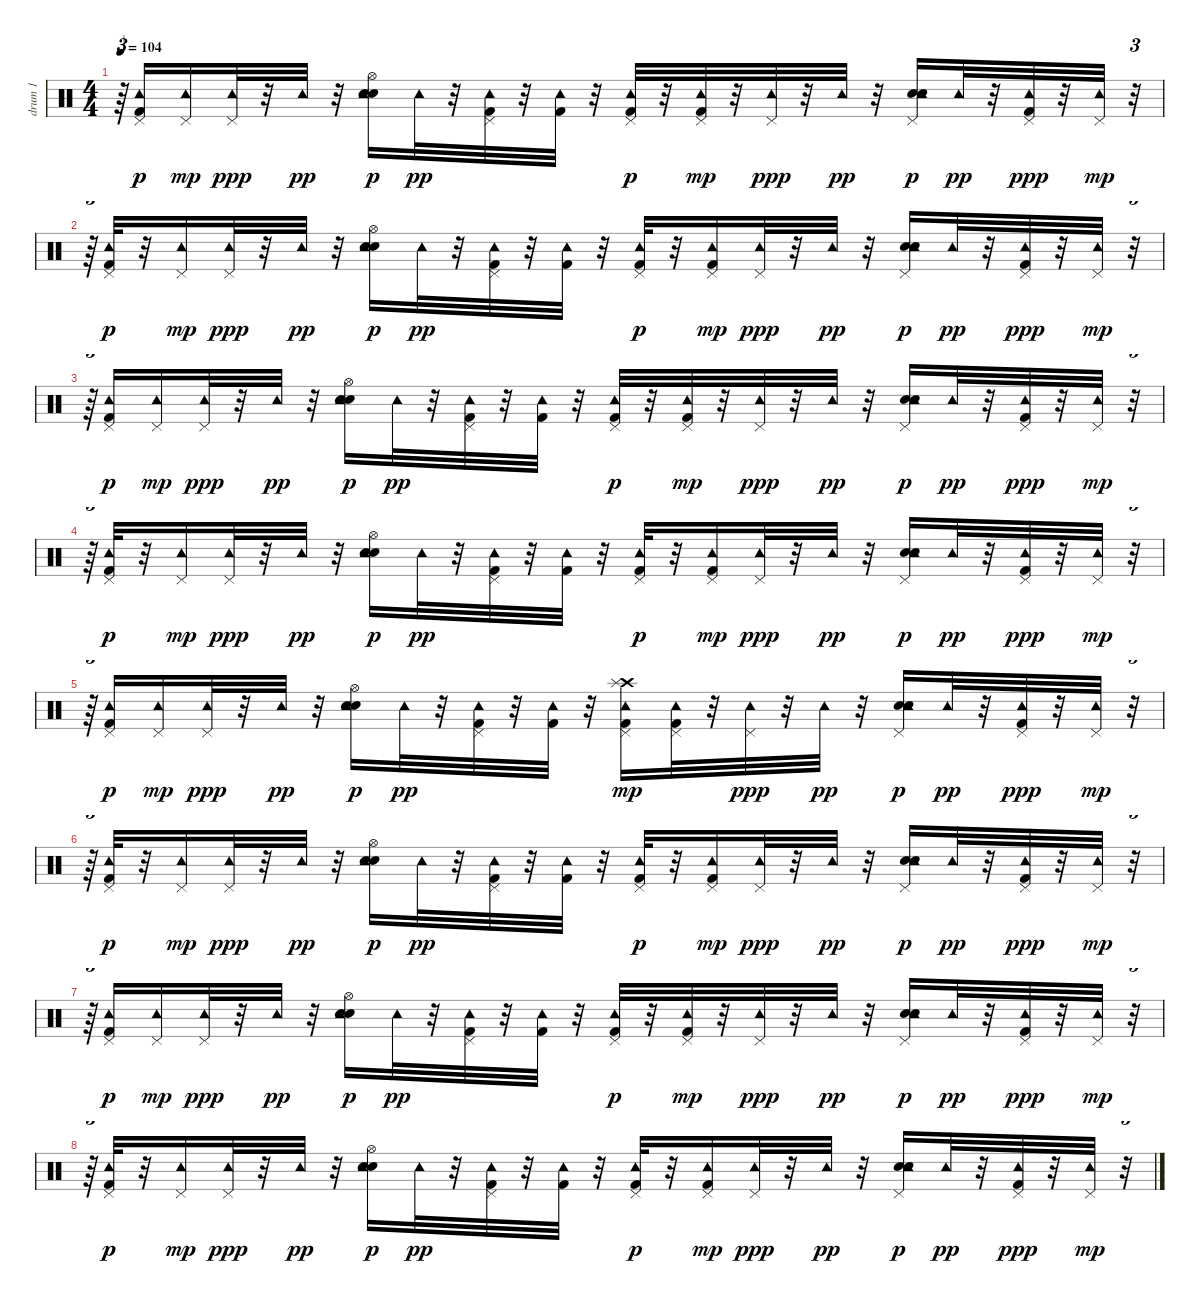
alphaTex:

\track ("drum 1" "drum 1") {instrument percussion}
\staff {score}
\articulation defaults
\ts (4 4)
\tempo 104
\clef neutral
\ks c
r.64{tu (3 2) dy mp} ("Kick (hit) 2" "Pedal Hi-Hat (hit)" "Tambourine (hit)").16{dy p} ("Tambourine (hit)" "Pedal Hi-Hat (hit)").16{dy mp} ("Pedal Hi-Hat (hit)" "Tambourine (hit)").32{dy ppp} r.32 "Tambourine (hit)".32{dy pp} r.32 ("Hand Clap (hit)" "Electric Snare (hit)" "Hi-Hat (open)" "Tambourine (hit)").16{dy p} "Tambourine (hit)".32{dy pp} r.32 ("Kick (hit) 2" "Pedal Hi-Hat (hit)" "Tambourine (hit)").32 r.32 ("Kick (hit) 2" "Tambourine (hit)").32 r.32 ("Kick (hit) 2" "Pedal Hi-Hat (hit)" "Tambourine (hit)").32{dy p} r.32 ("Kick (hit) 2" "Tambourine (hit)" "Pedal Hi-Hat (hit)").32{dy mp} r.32 ("Pedal Hi-Hat (hit)" "Tambourine (hit)").32{dy ppp} r.32 "Tambourine (hit)".32{dy pp} r.32 ("Hand Clap (hit)" "Electric Snare (hit)" "Pedal Hi-Hat (hit)" "Tambourine (hit)").16{dy p} "Tambourine (hit)".32{dy pp} r.32 ("Kick (hit) 2" "Pedal Hi-Hat (hit)" "Tambourine (hit)").32{dy ppp} r.32 ("Tambourine (hit)" "Pedal Hi-Hat (hit)").32{dy mp} r.32{tu (3 2)} |
r.64{tu (3 2)} ("Kick (hit) 2" "Pedal Hi-Hat (hit)" "Tambourine (hit)").32{dy p} r.32 ("Tambourine (hit)" "Pedal Hi-Hat (hit)").16{dy mp} ("Pedal Hi-Hat (hit)" "Tambourine (hit)").32{dy ppp} r.32 "Tambourine (hit)".32{dy pp} r.32 ("Hand Clap (hit)" "Electric Snare (hit)" "Hi-Hat (open)" "Tambourine (hit)").16{dy p} "Tambourine (hit)".32{dy pp} r.32 ("Kick (hit) 2" "Pedal Hi-Hat (hit)" "Tambourine (hit)").32 r.32 ("Kick (hit) 2" "Tambourine (hit)").32 r.32 ("Kick (hit) 2" "Pedal Hi-Hat (hit)" "Tambourine (hit)").32{dy p} r.32 ("Kick (hit) 2" "Tambourine (hit)" "Pedal Hi-Hat (hit)").16{dy mp} ("Pedal Hi-Hat (hit)" "Tambourine (hit)").32{dy ppp} r.32 "Tambourine (hit)".32{dy pp} r.32 ("Hand Clap (hit)" "Electric Snare (hit)" "Pedal Hi-Hat (hit)" "Tambourine (hit)").16{dy p} "Tambourine (hit)".32{dy pp} r.32 ("Kick (hit) 2" "Pedal Hi-Hat (hit)" "Tambourine (hit)").32{dy ppp} r.32 ("Tambourine (hit)" "Pedal Hi-Hat (hit)").32{dy mp} r.32{tu (3 2)} |
r.64{tu (3 2)} ("Kick (hit) 2" "Pedal Hi-Hat (hit)" "Tambourine (hit)").16{dy p} ("Tambourine (hit)" "Pedal Hi-Hat (hit)").16{dy mp} ("Pedal Hi-Hat (hit)" "Tambourine (hit)").32{dy ppp} r.32 "Tambourine (hit)".32{dy pp} r.32 ("Hand Clap (hit)" "Electric Snare (hit)" "Hi-Hat (open)" "Tambourine (hit)").16{dy p} "Tambourine (hit)".32{dy pp} r.32 ("Kick (hit) 2" "Pedal Hi-Hat (hit)" "Tambourine (hit)").32 r.32 ("Kick (hit) 2" "Tambourine (hit)").32 r.32 ("Kick (hit) 2" "Pedal Hi-Hat (hit)" "Tambourine (hit)").32{dy p} r.32 ("Kick (hit) 2" "Tambourine (hit)" "Pedal Hi-Hat (hit)").32{dy mp} r.32 ("Pedal Hi-Hat (hit)" "Tambourine (hit)").32{dy ppp} r.32 "Tambourine (hit)".32{dy pp} r.32 ("Hand Clap (hit)" "Electric Snare (hit)" "Pedal Hi-Hat (hit)" "Tambourine (hit)").16{dy p} "Tambourine (hit)".32{dy pp} r.32 ("Kick (hit) 2" "Pedal Hi-Hat (hit)" "Tambourine (hit)").32{dy ppp} r.32 ("Tambourine (hit)" "Pedal Hi-Hat (hit)").32{dy mp} r.32{tu (3 2)} |
r.64{tu (3 2)} ("Kick (hit) 2" "Pedal Hi-Hat (hit)" "Tambourine (hit)").32{dy p} r.32 ("Tambourine (hit)" "Pedal Hi-Hat (hit)").16{dy mp} ("Pedal Hi-Hat (hit)" "Tambourine (hit)").32{dy ppp} r.32 "Tambourine (hit)".32{dy pp} r.32 ("Hand Clap (hit)" "Electric Snare (hit)" "Hi-Hat (open)" "Tambourine (hit)").16{dy p} "Tambourine (hit)".32{dy pp} r.32 ("Kick (hit) 2" "Pedal Hi-Hat (hit)" "Tambourine (hit)").32 r.32 ("Kick (hit) 2" "Tambourine (hit)").32 r.32 ("Kick (hit) 2" "Pedal Hi-Hat (hit)" "Tambourine (hit)").32{dy p} r.32 ("Kick (hit) 2" "Tambourine (hit)" "Pedal Hi-Hat (hit)").16{dy mp} ("Pedal Hi-Hat (hit)" "Tambourine (hit)").32{dy ppp} r.32 "Tambourine (hit)".32{dy pp} r.32 ("Hand Clap (hit)" "Electric Snare (hit)" "Pedal Hi-Hat (hit)" "Tambourine (hit)").16{dy p} "Tambourine (hit)".32{dy pp} r.32 ("Kick (hit) 2" "Pedal Hi-Hat (hit)" "Tambourine (hit)").32{dy ppp} r.32 ("Tambourine (hit)" "Pedal Hi-Hat (hit)").32{dy mp} r.32{tu (3 2)} |
r.64{tu (3 2)} ("Kick (hit) 2" "Pedal Hi-Hat (hit)" "Tambourine (hit)").16{dy p} ("Tambourine (hit)" "Pedal Hi-Hat (hit)").16{dy mp} ("Pedal Hi-Hat (hit)" "Tambourine (hit)").32{dy ppp} r.32 "Tambourine (hit)".32{dy pp} r.32 ("Hand Clap (hit)" "Electric Snare (hit)" "Hi-Hat (open)" "Tambourine (hit)").16{dy p} "Tambourine (hit)".32{dy pp} r.32 ("Kick (hit) 2" "Pedal Hi-Hat (hit)" "Tambourine (hit)").32 r.32 ("Kick (hit) 2" "Tambourine (hit)").32 r.32 ("Kick (hit) 2" "Pedal Hi-Hat (hit)" "Crash high (hit)" "Tambourine (hit)" "Splash (hit)").16{dy mp} ("Kick (hit) 2" "Tambourine (hit)" "Pedal Hi-Hat (hit)").32 r.32 ("Pedal Hi-Hat (hit)" "Tambourine (hit)").32{dy ppp} r.32 "Tambourine (hit)".32{dy pp} r.32 ("Hand Clap (hit)" "Electric Snare (hit)" "Pedal Hi-Hat (hit)" "Tambourine (hit)").16{dy p} "Tambourine (hit)".32{dy pp} r.32 ("Kick (hit) 2" "Pedal Hi-Hat (hit)" "Tambourine (hit)").32{dy ppp} r.32 ("Tambourine (hit)" "Pedal Hi-Hat (hit)").32{dy mp} r.32{tu (3 2)} |
r.64{tu (3 2)} ("Kick (hit) 2" "Pedal Hi-Hat (hit)" "Tambourine (hit)").32{dy p} r.32 ("Tambourine (hit)" "Pedal Hi-Hat (hit)").16{dy mp} ("Pedal Hi-Hat (hit)" "Tambourine (hit)").32{dy ppp} r.32 "Tambourine (hit)".32{dy pp} r.32 ("Hand Clap (hit)" "Electric Snare (hit)" "Hi-Hat (open)" "Tambourine (hit)").16{dy p} "Tambourine (hit)".32{dy pp} r.32 ("Kick (hit) 2" "Pedal Hi-Hat (hit)" "Tambourine (hit)").32 r.32 ("Kick (hit) 2" "Tambourine (hit)").32 r.32 ("Kick (hit) 2" "Pedal Hi-Hat (hit)" "Tambourine (hit)").32{dy p} r.32 ("Kick (hit) 2" "Tambourine (hit)" "Pedal Hi-Hat (hit)").16{dy mp} ("Pedal Hi-Hat (hit)" "Tambourine (hit)").32{dy ppp} r.32 "Tambourine (hit)".32{dy pp} r.32 ("Hand Clap (hit)" "Electric Snare (hit)" "Pedal Hi-Hat (hit)" "Tambourine (hit)").16{dy p} "Tambourine (hit)".32{dy pp} r.32 ("Kick (hit) 2" "Pedal Hi-Hat (hit)" "Tambourine (hit)").32{dy ppp} r.32 ("Tambourine (hit)" "Pedal Hi-Hat (hit)").32{dy mp} r.32{tu (3 2)} |
r.64{tu (3 2)} ("Kick (hit) 2" "Pedal Hi-Hat (hit)" "Tambourine (hit)").16{dy p} ("Tambourine (hit)" "Pedal Hi-Hat (hit)").16{dy mp} ("Pedal Hi-Hat (hit)" "Tambourine (hit)").32{dy ppp} r.32 "Tambourine (hit)".32{dy pp} r.32 ("Hand Clap (hit)" "Electric Snare (hit)" "Hi-Hat (open)" "Tambourine (hit)").16{dy p} "Tambourine (hit)".32{dy pp} r.32 ("Kick (hit) 2" "Pedal Hi-Hat (hit)" "Tambourine (hit)").32 r.32 ("Kick (hit) 2" "Tambourine (hit)").32 r.32 ("Kick (hit) 2" "Pedal Hi-Hat (hit)" "Tambourine (hit)").32{dy p} r.32 ("Kick (hit) 2" "Tambourine (hit)" "Pedal Hi-Hat (hit)").32{dy mp} r.32 ("Pedal Hi-Hat (hit)" "Tambourine (hit)").32{dy ppp} r.32 "Tambourine (hit)".32{dy pp} r.32 ("Hand Clap (hit)" "Electric Snare (hit)" "Pedal Hi-Hat (hit)" "Tambourine (hit)").16{dy p} "Tambourine (hit)".32{dy pp} r.32 ("Kick (hit) 2" "Pedal Hi-Hat (hit)" "Tambourine (hit)").32{dy ppp} r.32 ("Tambourine (hit)" "Pedal Hi-Hat (hit)").32{dy mp} r.32{tu (3 2)} |
r.64{tu (3 2)} ("Kick (hit) 2" "Pedal Hi-Hat (hit)" "Tambourine (hit)").32{dy p} r.32 ("Tambourine (hit)" "Pedal Hi-Hat (hit)").16{dy mp} ("Pedal Hi-Hat (hit)" "Tambourine (hit)").32{dy ppp} r.32 "Tambourine (hit)".32{dy pp} r.32 ("Hand Clap (hit)" "Electric Snare (hit)" "Hi-Hat (open)" "Tambourine (hit)").16{dy p} "Tambourine (hit)".32{dy pp} r.32 ("Kick (hit) 2" "Pedal Hi-Hat (hit)" "Tambourine (hit)").32 r.32 ("Kick (hit) 2" "Tambourine (hit)").32 r.32 ("Kick (hit) 2" "Pedal Hi-Hat (hit)" "Tambourine (hit)").32{dy p} r.32 ("Kick (hit) 2" "Tambourine (hit)" "Pedal Hi-Hat (hit)").16{dy mp} ("Pedal Hi-Hat (hit)" "Tambourine (hit)").32{dy ppp} r.32 "Tambourine (hit)".32{dy pp} r.32 ("Hand Clap (hit)" "Electric Snare (hit)" "Pedal Hi-Hat (hit)" "Tambourine (hit)").16{dy p} "Tambourine (hit)".32{dy pp} r.32 ("Kick (hit) 2" "Pedal Hi-Hat (hit)" "Tambourine (hit)").32{dy ppp} r.32 ("Tambourine (hit)" "Pedal Hi-Hat (hit)").32{dy mp} r.32{tu (3 2)}
